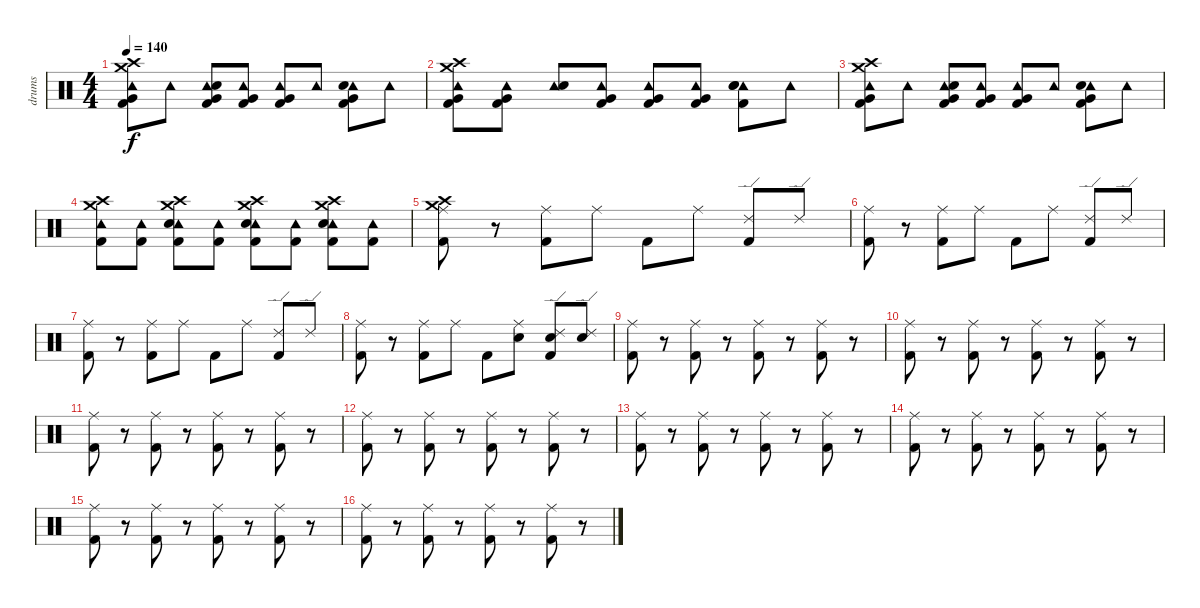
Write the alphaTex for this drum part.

\track ("drums" "drums") {instrument percussion}
\staff {score}
\articulation defaults
\ts (4 4)
\tempo 140
\clef neutral
\ks c
("Crash high (hit)" "Tambourine (hit)" "Crash medium (hit)" "Very Low Tom (hit)" "Kick (hit) 2").8{dy f} "Tambourine (hit)".8 ("Tambourine (hit)" "Snare (hit) 2" "Very Low Tom (hit)" "Kick (hit) 2").8 ("Tambourine (hit)" "Very Low Tom (hit)" "Kick (hit) 2").8 ("Tambourine (hit)" "Very Low Tom (hit)" "Kick (hit) 2").8 "Tambourine (hit)".8 ("Tambourine (hit)" "Snare (hit) 2" "Very Low Tom (hit)" "Kick (hit) 2").8 "Tambourine (hit)".8 |
("Crash high (hit)" "Tambourine (hit)" "Crash medium (hit)" "Very Low Tom (hit)" "Kick (hit) 2").8 ("Tambourine (hit)" "Very Low Tom (hit)" "Kick (hit) 2").8 ("Tambourine (hit)" "Snare (hit) 2").8 ("Tambourine (hit)" "Very Low Tom (hit)" "Kick (hit) 2").8 ("Tambourine (hit)" "Very Low Tom (hit)" "Kick (hit) 2").8 ("Tambourine (hit)" "Very Low Tom (hit)" "Kick (hit) 2").8 ("Tambourine (hit)" "Snare (hit) 2" "Snare (hit) 2" "Kick (hit) 2").8 "Tambourine (hit)".8 |
("Crash high (hit)" "Tambourine (hit)" "Crash medium (hit)" "Very Low Tom (hit)" "Kick (hit) 2").8 "Tambourine (hit)".8 ("Tambourine (hit)" "Snare (hit) 2" "Very Low Tom (hit)" "Kick (hit) 2").8 ("Tambourine (hit)" "Very Low Tom (hit)" "Kick (hit) 2").8 ("Tambourine (hit)" "Very Low Tom (hit)" "Kick (hit) 2").8 "Tambourine (hit)".8 ("Tambourine (hit)" "Snare (hit) 2" "Very Low Tom (hit)" "Kick (hit) 2").8 "Tambourine (hit)".8 |
("Crash high (hit)" "Tambourine (hit)" "Crash medium (hit)" "Kick (hit) 2").8 ("Tambourine (hit)" "Kick (hit) 2").8 ("Crash high (hit)" "Tambourine (hit)" "Crash medium (hit)" "Snare (hit) 2" "Kick (hit) 2").8 ("Tambourine (hit)" "Kick (hit) 2").8 ("Crash high (hit)" "Tambourine (hit)" "Crash medium (hit)" "Snare (hit) 2" "Kick (hit) 2").8 ("Tambourine (hit)" "Kick (hit) 2").8 ("Crash high (hit)" "Tambourine (hit)" "Crash medium (hit)" "Snare (hit) 2" "Kick (hit) 2").8 ("Tambourine (hit)" "Kick (hit) 2").8 |
("Crash medium (hit)" "Ride (middle)" "Crash high (hit)" "Kick (hit) 2").8 r.8 ("Ride (middle)" "Kick (hit) 2").8 "Ride (middle)".8 "Kick (hit) 2".8 "Ride (middle)".8 ("Ride (edge) 2" "Kick (hit) 2").8 "Ride (edge) 2".8 |
("Ride (middle)" "Kick (hit) 2").8 r.8 ("Ride (middle)" "Kick (hit) 2").8 "Ride (middle)".8 "Kick (hit) 2".8 "Ride (middle)".8 ("Ride (edge) 2" "Kick (hit) 2").8 "Ride (edge) 2".8 |
("Ride (middle)" "Kick (hit) 2").8 r.8 ("Ride (middle)" "Kick (hit) 2").8 "Ride (middle)".8 "Kick (hit) 2".8 "Ride (middle)".8 ("Ride (edge) 2" "Kick (hit) 2").8 "Ride (edge) 2".8 |
("Ride (middle)" "Kick (hit) 2").8 r.8 ("Ride (middle)" "Kick (hit) 2").8 "Ride (middle)".8 "Kick (hit) 2".8 ("Ride (middle)" "Snare (hit) 2").8 ("Ride (edge) 2" "Snare (hit) 2" "Kick (hit) 2").8 ("Ride (edge) 2" "Snare (hit) 2").8 |
("Ride (middle)" "Kick (hit) 2").8 r.8 ("Ride (middle)" "Kick (hit) 2").8 r.8 ("Ride (middle)" "Kick (hit) 2").8 r.8 ("Ride (middle)" "Kick (hit) 2").8 r.8 |
("Ride (middle)" "Kick (hit) 2").8 r.8 ("Ride (middle)" "Kick (hit) 2").8 r.8 ("Ride (middle)" "Kick (hit) 2").8 r.8 ("Ride (middle)" "Kick (hit) 2").8 r.8 |
("Ride (middle)" "Kick (hit) 2").8 r.8 ("Ride (middle)" "Kick (hit) 2").8 r.8 ("Ride (middle)" "Kick (hit) 2").8 r.8 ("Ride (middle)" "Kick (hit) 2").8 r.8 |
("Ride (middle)" "Kick (hit) 2").8 r.8 ("Ride (middle)" "Kick (hit) 2").8 r.8 ("Ride (middle)" "Kick (hit) 2").8 r.8 ("Ride (middle)" "Kick (hit) 2").8 r.8 |
("Ride (middle)" "Kick (hit) 2").8 r.8 ("Ride (middle)" "Kick (hit) 2").8 r.8 ("Ride (middle)" "Kick (hit) 2").8 r.8 ("Ride (middle)" "Kick (hit) 2").8 r.8 |
("Ride (middle)" "Kick (hit) 2").8 r.8 ("Ride (middle)" "Kick (hit) 2").8 r.8 ("Ride (middle)" "Kick (hit) 2").8 r.8 ("Ride (middle)" "Kick (hit) 2").8 r.8 |
("Ride (middle)" "Kick (hit) 2").8 r.8 ("Ride (middle)" "Kick (hit) 2").8 r.8 ("Ride (middle)" "Kick (hit) 2").8 r.8 ("Ride (middle)" "Kick (hit) 2").8 r.8 |
("Ride (middle)" "Kick (hit) 2").8 r.8 ("Ride (middle)" "Kick (hit) 2").8 r.8 ("Ride (middle)" "Kick (hit) 2").8 r.8 ("Ride (middle)" "Kick (hit) 2").8 r.8
